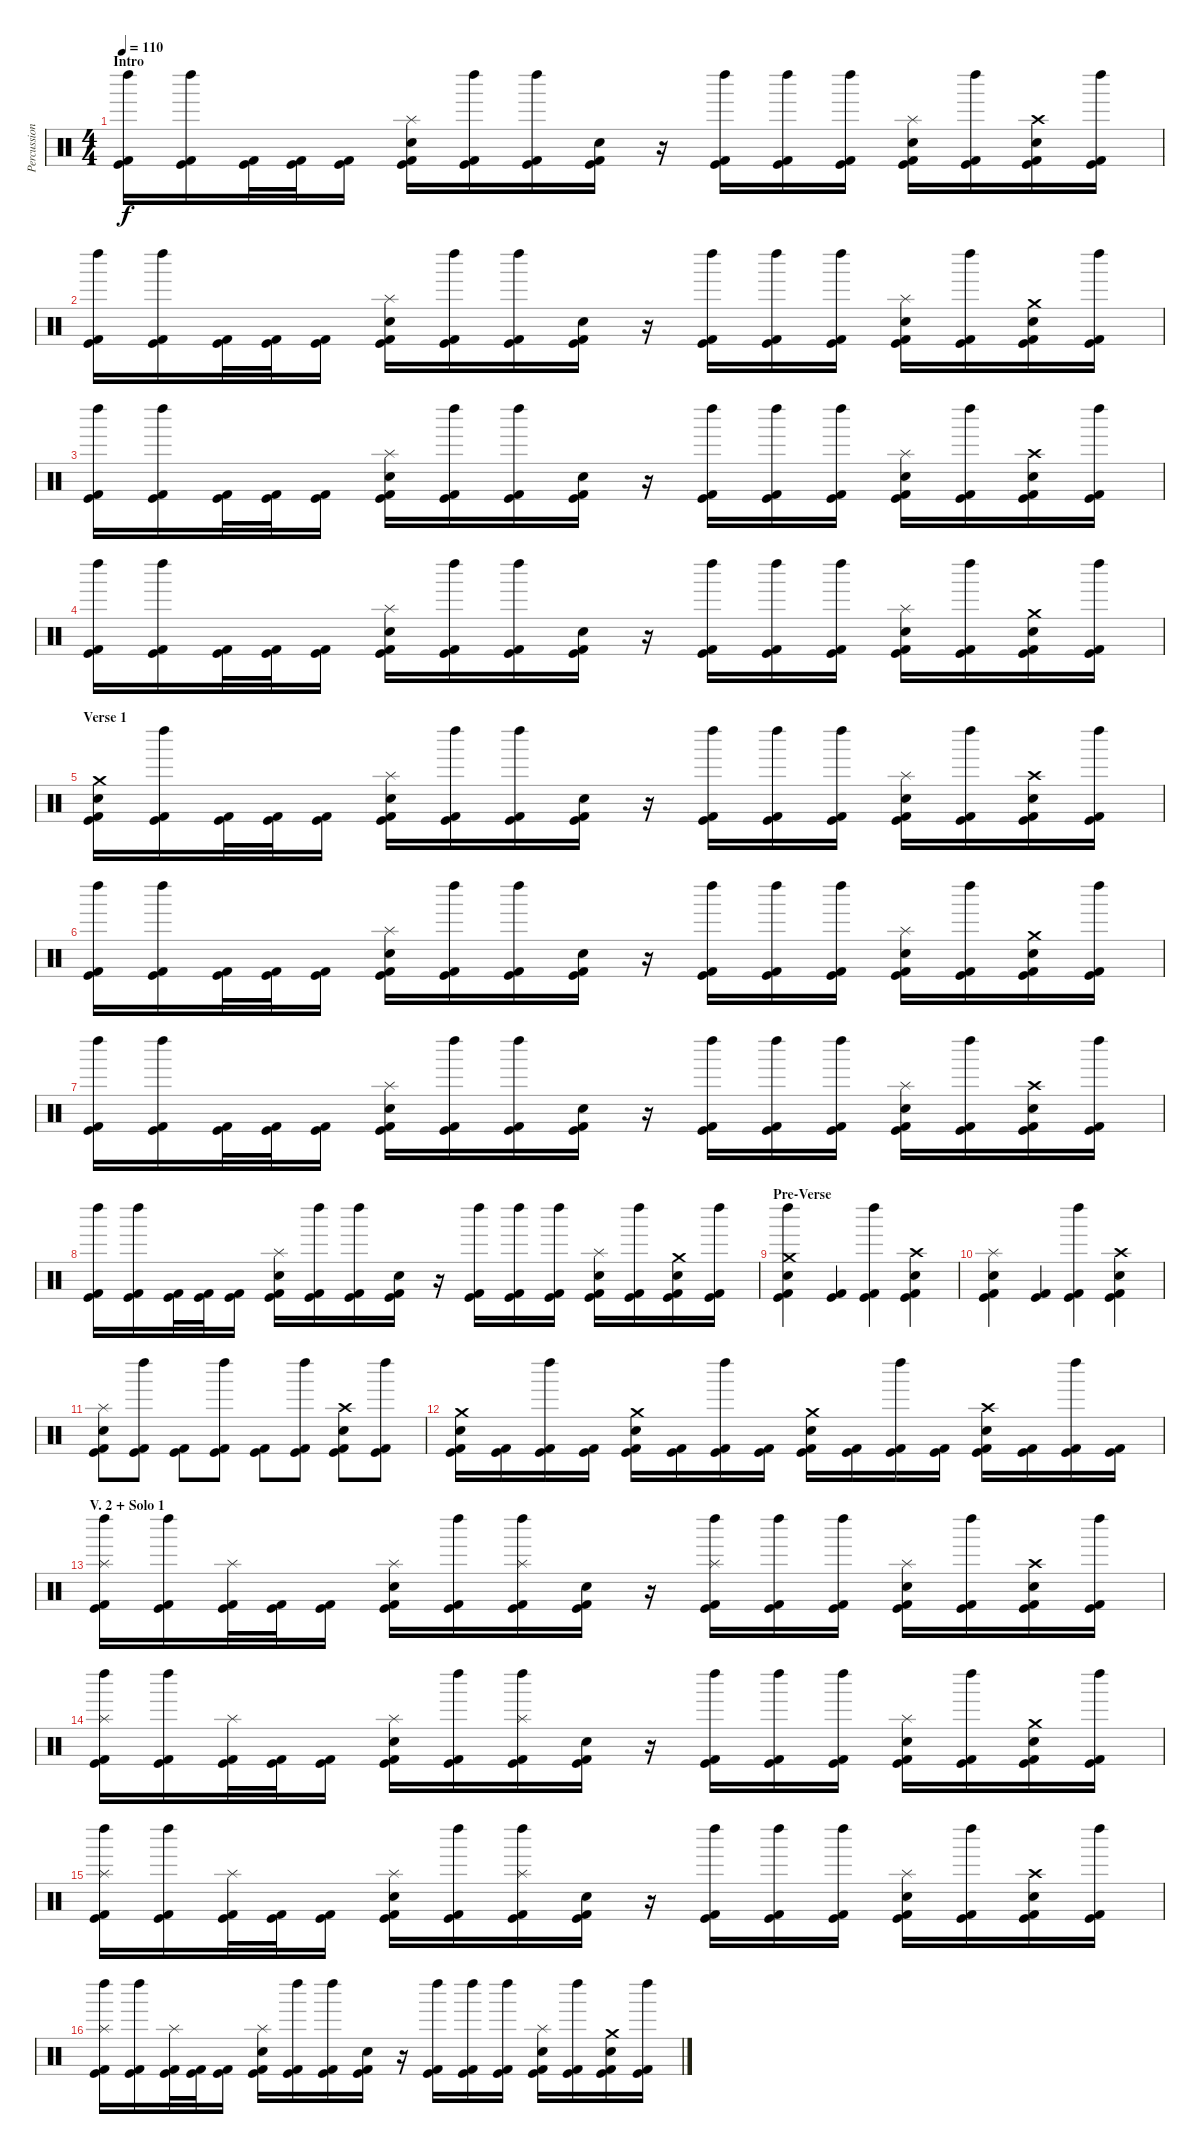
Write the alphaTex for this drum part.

\track ("Percussions" "Percussion") {instrument percussion}
\staff {score}
\articulation defaults
\ts (4 4)
\section ("" "Intro")
\tempo 110
\clef neutral
\ks c
("Kick (hit)" "Kick (hit) 2" "Left Maraca (hit)").16{dy f} ("Kick (hit)" "Kick (hit) 2" "Left Maraca (hit)").16 ("Kick (hit)" "Kick (hit) 2").32 ("Kick (hit)" "Kick (hit) 2").32 ("Kick (hit)" "Kick (hit) 2").16 ("Kick (hit)" "Kick (hit) 2" "Electric Snare (hit)" "Splash (hit)").16 ("Kick (hit)" "Kick (hit) 2" "Left Maraca (hit)").16 ("Kick (hit)" "Kick (hit) 2" "Left Maraca (hit)").16 ("Kick (hit)" "Kick (hit) 2" "Electric Snare (hit)").16 r.16 ("Kick (hit)" "Kick (hit) 2" "Left Maraca (hit)").16 ("Kick (hit)" "Kick (hit) 2" "Left Maraca (hit)").16 ("Kick (hit)" "Kick (hit) 2" "Left Maraca (hit)").16 ("Kick (hit)" "Kick (hit) 2" "Electric Snare (hit)" "Splash (hit)").16 ("Kick (hit)" "Kick (hit) 2" "Left Maraca (hit)").16 ("Kick (hit)" "Kick (hit) 2" "Electric Snare (hit)" "Crash high (hit)").16 ("Kick (hit)" "Kick (hit) 2" "Left Maraca (hit)").16 |
("Kick (hit)" "Kick (hit) 2" "Left Maraca (hit)").16 ("Kick (hit)" "Kick (hit) 2" "Left Maraca (hit)").16 ("Kick (hit)" "Kick (hit) 2").32 ("Kick (hit)" "Kick (hit) 2").32 ("Kick (hit)" "Kick (hit) 2").16 ("Kick (hit)" "Kick (hit) 2" "Electric Snare (hit)" "Splash (hit)").16 ("Kick (hit)" "Kick (hit) 2" "Left Maraca (hit)").16 ("Kick (hit)" "Kick (hit) 2" "Left Maraca (hit)").16 ("Kick (hit)" "Kick (hit) 2" "Electric Snare (hit)").16 r.16 ("Kick (hit)" "Kick (hit) 2" "Left Maraca (hit)").16 ("Kick (hit)" "Kick (hit) 2" "Left Maraca (hit)").16 ("Kick (hit)" "Kick (hit) 2" "Left Maraca (hit)").16 ("Kick (hit)" "Kick (hit) 2" "Electric Snare (hit)" "Splash (hit)").16 ("Kick (hit)" "Kick (hit) 2" "Left Maraca (hit)").16 ("Kick (hit)" "Kick (hit) 2" "Electric Snare (hit)" "Crash medium (hit)").16 ("Kick (hit)" "Kick (hit) 2" "Left Maraca (hit)").16 |
("Kick (hit)" "Kick (hit) 2" "Left Maraca (hit)").16 ("Kick (hit)" "Kick (hit) 2" "Left Maraca (hit)").16 ("Kick (hit)" "Kick (hit) 2").32 ("Kick (hit)" "Kick (hit) 2").32 ("Kick (hit)" "Kick (hit) 2").16 ("Kick (hit)" "Kick (hit) 2" "Electric Snare (hit)" "Splash (hit)").16 ("Kick (hit)" "Kick (hit) 2" "Left Maraca (hit)").16 ("Kick (hit)" "Kick (hit) 2" "Left Maraca (hit)").16 ("Kick (hit)" "Kick (hit) 2" "Electric Snare (hit)").16 r.16 ("Kick (hit)" "Kick (hit) 2" "Left Maraca (hit)").16 ("Kick (hit)" "Kick (hit) 2" "Left Maraca (hit)").16 ("Kick (hit)" "Kick (hit) 2" "Left Maraca (hit)").16 ("Kick (hit)" "Kick (hit) 2" "Electric Snare (hit)" "Splash (hit)").16 ("Kick (hit)" "Kick (hit) 2" "Left Maraca (hit)").16 ("Kick (hit)" "Kick (hit) 2" "Electric Snare (hit)" "Crash high (hit)").16 ("Kick (hit)" "Kick (hit) 2" "Left Maraca (hit)").16 |
("Kick (hit)" "Kick (hit) 2" "Left Maraca (hit)").16 ("Kick (hit)" "Kick (hit) 2" "Left Maraca (hit)").16 ("Kick (hit)" "Kick (hit) 2").32 ("Kick (hit)" "Kick (hit) 2").32 ("Kick (hit)" "Kick (hit) 2").16 ("Kick (hit)" "Kick (hit) 2" "Electric Snare (hit)" "Splash (hit)").16 ("Kick (hit)" "Kick (hit) 2" "Left Maraca (hit)").16 ("Kick (hit)" "Kick (hit) 2" "Left Maraca (hit)").16 ("Kick (hit)" "Kick (hit) 2" "Electric Snare (hit)").16 r.16 ("Kick (hit)" "Kick (hit) 2" "Left Maraca (hit)").16 ("Kick (hit)" "Kick (hit) 2" "Left Maraca (hit)").16 ("Kick (hit)" "Kick (hit) 2" "Left Maraca (hit)").16 ("Kick (hit)" "Kick (hit) 2" "Electric Snare (hit)" "Splash (hit)").16 ("Kick (hit)" "Kick (hit) 2" "Left Maraca (hit)").16 ("Kick (hit)" "Kick (hit) 2" "Electric Snare (hit)" "Crash medium (hit)").16 ("Kick (hit)" "Kick (hit) 2" "Left Maraca (hit)").16 |
\section ("" "Verse 1")
("Kick (hit)" "Kick (hit) 2" "Electric Snare (hit)" "Crash medium (hit)").16 ("Kick (hit)" "Kick (hit) 2" "Left Maraca (hit)").16 ("Kick (hit)" "Kick (hit) 2").32 ("Kick (hit)" "Kick (hit) 2").32 ("Kick (hit)" "Kick (hit) 2").16 ("Kick (hit)" "Kick (hit) 2" "Electric Snare (hit)" "Splash (hit)").16 ("Kick (hit)" "Kick (hit) 2" "Left Maraca (hit)").16 ("Kick (hit)" "Kick (hit) 2" "Left Maraca (hit)").16 ("Kick (hit)" "Kick (hit) 2" "Electric Snare (hit)").16 r.16 ("Kick (hit)" "Kick (hit) 2" "Left Maraca (hit)").16 ("Kick (hit)" "Kick (hit) 2" "Left Maraca (hit)").16 ("Kick (hit)" "Kick (hit) 2" "Left Maraca (hit)").16 ("Kick (hit)" "Kick (hit) 2" "Electric Snare (hit)" "Splash (hit)").16 ("Kick (hit)" "Kick (hit) 2" "Left Maraca (hit)").16 ("Kick (hit)" "Kick (hit) 2" "Electric Snare (hit)" "Crash high (hit)").16 ("Kick (hit)" "Kick (hit) 2" "Left Maraca (hit)").16 |
("Kick (hit)" "Kick (hit) 2" "Left Maraca (hit)").16 ("Kick (hit)" "Kick (hit) 2" "Left Maraca (hit)").16 ("Kick (hit)" "Kick (hit) 2").32 ("Kick (hit)" "Kick (hit) 2").32 ("Kick (hit)" "Kick (hit) 2").16 ("Kick (hit)" "Kick (hit) 2" "Electric Snare (hit)" "Splash (hit)").16 ("Kick (hit)" "Kick (hit) 2" "Left Maraca (hit)").16 ("Kick (hit)" "Kick (hit) 2" "Left Maraca (hit)").16 ("Kick (hit)" "Kick (hit) 2" "Electric Snare (hit)").16 r.16 ("Kick (hit)" "Kick (hit) 2" "Left Maraca (hit)").16 ("Kick (hit)" "Kick (hit) 2" "Left Maraca (hit)").16 ("Kick (hit)" "Kick (hit) 2" "Left Maraca (hit)").16 ("Kick (hit)" "Kick (hit) 2" "Electric Snare (hit)" "Splash (hit)").16 ("Kick (hit)" "Kick (hit) 2" "Left Maraca (hit)").16 ("Kick (hit)" "Kick (hit) 2" "Electric Snare (hit)" "Crash medium (hit)").16 ("Kick (hit)" "Kick (hit) 2" "Left Maraca (hit)").16 |
("Kick (hit)" "Kick (hit) 2" "Left Maraca (hit)").16 ("Kick (hit)" "Kick (hit) 2" "Left Maraca (hit)").16 ("Kick (hit)" "Kick (hit) 2").32 ("Kick (hit)" "Kick (hit) 2").32 ("Kick (hit)" "Kick (hit) 2").16 ("Kick (hit)" "Kick (hit) 2" "Electric Snare (hit)" "Splash (hit)").16 ("Kick (hit)" "Kick (hit) 2" "Left Maraca (hit)").16 ("Kick (hit)" "Kick (hit) 2" "Left Maraca (hit)").16 ("Kick (hit)" "Kick (hit) 2" "Electric Snare (hit)").16 r.16 ("Kick (hit)" "Kick (hit) 2" "Left Maraca (hit)").16 ("Kick (hit)" "Kick (hit) 2" "Left Maraca (hit)").16 ("Kick (hit)" "Kick (hit) 2" "Left Maraca (hit)").16 ("Kick (hit)" "Kick (hit) 2" "Electric Snare (hit)" "Splash (hit)").16 ("Kick (hit)" "Kick (hit) 2" "Left Maraca (hit)").16 ("Kick (hit)" "Kick (hit) 2" "Electric Snare (hit)" "Crash high (hit)").16 ("Kick (hit)" "Kick (hit) 2" "Left Maraca (hit)").16 |
("Kick (hit)" "Kick (hit) 2" "Left Maraca (hit)").16 ("Kick (hit)" "Kick (hit) 2" "Left Maraca (hit)").16 ("Kick (hit)" "Kick (hit) 2").32 ("Kick (hit)" "Kick (hit) 2").32 ("Kick (hit)" "Kick (hit) 2").16 ("Kick (hit)" "Kick (hit) 2" "Electric Snare (hit)" "Splash (hit)").16 ("Kick (hit)" "Kick (hit) 2" "Left Maraca (hit)").16 ("Kick (hit)" "Kick (hit) 2" "Left Maraca (hit)").16 ("Kick (hit)" "Kick (hit) 2" "Electric Snare (hit)").16 r.16 ("Kick (hit)" "Kick (hit) 2" "Left Maraca (hit)").16 ("Kick (hit)" "Kick (hit) 2" "Left Maraca (hit)").16 ("Kick (hit)" "Kick (hit) 2" "Left Maraca (hit)").16 ("Kick (hit)" "Kick (hit) 2" "Electric Snare (hit)" "Splash (hit)").16 ("Kick (hit)" "Kick (hit) 2" "Left Maraca (hit)").16 ("Kick (hit)" "Kick (hit) 2" "Electric Snare (hit)" "Crash medium (hit)").16 ("Kick (hit)" "Kick (hit) 2" "Left Maraca (hit)").16 |
\section ("" "Pre-Verse")
("Kick (hit)" "Kick (hit) 2" "Left Maraca (hit)" "Electric Snare (hit)" "Crash medium (hit)").4 ("Kick (hit)" "Kick (hit) 2").4 ("Kick (hit)" "Kick (hit) 2" "Left Maraca (hit)").4 ("Kick (hit)" "Kick (hit) 2" "Electric Snare (hit)" "Crash high (hit)").4 |
("Kick (hit)" "Kick (hit) 2" "Electric Snare (hit)" "Splash (hit)").4 ("Kick (hit)" "Kick (hit) 2").4 ("Kick (hit)" "Kick (hit) 2" "Left Maraca (hit)").4 ("Kick (hit)" "Kick (hit) 2" "Electric Snare (hit)" "Crash high (hit)").4 |
("Kick (hit)" "Kick (hit) 2" "Electric Snare (hit)" "Splash (hit)").8 ("Kick (hit)" "Kick (hit) 2" "Left Maraca (hit)").8 ("Kick (hit)" "Kick (hit) 2").8 ("Kick (hit)" "Kick (hit) 2" "Left Maraca (hit)").8 ("Kick (hit)" "Kick (hit) 2").8 ("Kick (hit)" "Kick (hit) 2" "Left Maraca (hit)").8 ("Kick (hit)" "Kick (hit) 2" "Electric Snare (hit)" "Crash high (hit)").8 ("Kick (hit)" "Kick (hit) 2" "Left Maraca (hit)").8 |
("Kick (hit)" "Kick (hit) 2" "Electric Snare (hit)" "Crash medium (hit)").16 ("Kick (hit)" "Kick (hit) 2").16 ("Kick (hit)" "Kick (hit) 2" "Left Maraca (hit)").16 ("Kick (hit)" "Kick (hit) 2").16 ("Kick (hit)" "Kick (hit) 2" "Electric Snare (hit)" "Crash medium (hit)").16 ("Kick (hit)" "Kick (hit) 2").16 ("Kick (hit)" "Kick (hit) 2" "Left Maraca (hit)").16 ("Kick (hit)" "Kick (hit) 2").16 ("Kick (hit)" "Kick (hit) 2" "Electric Snare (hit)" "Crash medium (hit)").16 ("Kick (hit)" "Kick (hit) 2").16 ("Kick (hit)" "Kick (hit) 2" "Left Maraca (hit)").16 ("Kick (hit)" "Kick (hit) 2").16 ("Kick (hit)" "Kick (hit) 2" "Electric Snare (hit)" "Crash high (hit)").16 ("Kick (hit)" "Kick (hit) 2").16 ("Kick (hit)" "Kick (hit) 2" "Left Maraca (hit)").16 ("Kick (hit)" "Kick (hit) 2").16 |
\section ("" "V. 2 + Solo 1")
("Kick (hit)" "Kick (hit) 2" "Left Maraca (hit)" "Splash (hit)").16 ("Kick (hit)" "Kick (hit) 2" "Left Maraca (hit)").16 ("Kick (hit)" "Kick (hit) 2" "Splash (hit)").32 ("Kick (hit)" "Kick (hit) 2").32 ("Kick (hit)" "Kick (hit) 2").16 ("Kick (hit)" "Kick (hit) 2" "Electric Snare (hit)" "Splash (hit)").16 ("Kick (hit)" "Kick (hit) 2" "Left Maraca (hit)").16 ("Kick (hit)" "Kick (hit) 2" "Left Maraca (hit)" "Splash (hit)").16 ("Kick (hit)" "Kick (hit) 2" "Electric Snare (hit)").16 r.16 ("Kick (hit)" "Kick (hit) 2" "Left Maraca (hit)" "Splash (hit)").16 ("Kick (hit)" "Kick (hit) 2" "Left Maraca (hit)").16 ("Kick (hit)" "Kick (hit) 2" "Left Maraca (hit)").16 ("Kick (hit)" "Kick (hit) 2" "Electric Snare (hit)" "Splash (hit)").16 ("Kick (hit)" "Kick (hit) 2" "Left Maraca (hit)").16 ("Kick (hit)" "Kick (hit) 2" "Electric Snare (hit)" "Crash high (hit)").16 ("Kick (hit)" "Kick (hit) 2" "Left Maraca (hit)").16 |
("Kick (hit)" "Kick (hit) 2" "Left Maraca (hit)" "Splash (hit)").16 ("Kick (hit)" "Kick (hit) 2" "Left Maraca (hit)").16 ("Kick (hit)" "Kick (hit) 2" "Splash (hit)").32 ("Kick (hit)" "Kick (hit) 2").32 ("Kick (hit)" "Kick (hit) 2").16 ("Kick (hit)" "Kick (hit) 2" "Electric Snare (hit)" "Splash (hit)").16 ("Kick (hit)" "Kick (hit) 2" "Left Maraca (hit)").16 ("Kick (hit)" "Kick (hit) 2" "Left Maraca (hit)" "Splash (hit)").16 ("Kick (hit)" "Kick (hit) 2" "Electric Snare (hit)").16 r.16 ("Kick (hit)" "Kick (hit) 2" "Left Maraca (hit)").16 ("Kick (hit)" "Kick (hit) 2" "Left Maraca (hit)").16 ("Kick (hit)" "Kick (hit) 2" "Left Maraca (hit)").16 ("Kick (hit)" "Kick (hit) 2" "Electric Snare (hit)" "Splash (hit)").16 ("Kick (hit)" "Kick (hit) 2" "Left Maraca (hit)").16 ("Kick (hit)" "Kick (hit) 2" "Electric Snare (hit)" "Crash medium (hit)").16 ("Kick (hit)" "Kick (hit) 2" "Left Maraca (hit)").16 |
("Kick (hit)" "Kick (hit) 2" "Left Maraca (hit)" "Splash (hit)").16 ("Kick (hit)" "Kick (hit) 2" "Left Maraca (hit)").16 ("Kick (hit)" "Kick (hit) 2" "Splash (hit)").32 ("Kick (hit)" "Kick (hit) 2").32 ("Kick (hit)" "Kick (hit) 2").16 ("Kick (hit)" "Kick (hit) 2" "Electric Snare (hit)" "Splash (hit)").16 ("Kick (hit)" "Kick (hit) 2" "Left Maraca (hit)").16 ("Kick (hit)" "Kick (hit) 2" "Left Maraca (hit)" "Splash (hit)").16 ("Kick (hit)" "Kick (hit) 2" "Electric Snare (hit)").16 r.16 ("Kick (hit)" "Kick (hit) 2" "Left Maraca (hit)").16 ("Kick (hit)" "Kick (hit) 2" "Left Maraca (hit)").16 ("Kick (hit)" "Kick (hit) 2" "Left Maraca (hit)").16 ("Kick (hit)" "Kick (hit) 2" "Electric Snare (hit)" "Splash (hit)").16 ("Kick (hit)" "Kick (hit) 2" "Left Maraca (hit)").16 ("Kick (hit)" "Kick (hit) 2" "Electric Snare (hit)" "Crash high (hit)").16 ("Kick (hit)" "Kick (hit) 2" "Left Maraca (hit)").16 |
("Kick (hit)" "Kick (hit) 2" "Left Maraca (hit)" "Splash (hit)").16 ("Kick (hit)" "Kick (hit) 2" "Left Maraca (hit)").16 ("Kick (hit)" "Kick (hit) 2" "Splash (hit)").32 ("Kick (hit)" "Kick (hit) 2").32 ("Kick (hit)" "Kick (hit) 2").16 ("Kick (hit)" "Kick (hit) 2" "Electric Snare (hit)" "Splash (hit)").16 ("Kick (hit)" "Kick (hit) 2" "Left Maraca (hit)").16 ("Kick (hit)" "Kick (hit) 2" "Left Maraca (hit)").16 ("Kick (hit)" "Kick (hit) 2" "Electric Snare (hit)").16 r.16 ("Kick (hit)" "Kick (hit) 2" "Left Maraca (hit)").16 ("Kick (hit)" "Kick (hit) 2" "Left Maraca (hit)").16 ("Kick (hit)" "Kick (hit) 2" "Left Maraca (hit)").16 ("Kick (hit)" "Kick (hit) 2" "Electric Snare (hit)" "Splash (hit)").16 ("Kick (hit)" "Kick (hit) 2" "Left Maraca (hit)").16 ("Kick (hit)" "Kick (hit) 2" "Electric Snare (hit)" "Crash medium (hit)").16 ("Kick (hit)" "Kick (hit) 2" "Left Maraca (hit)").16
